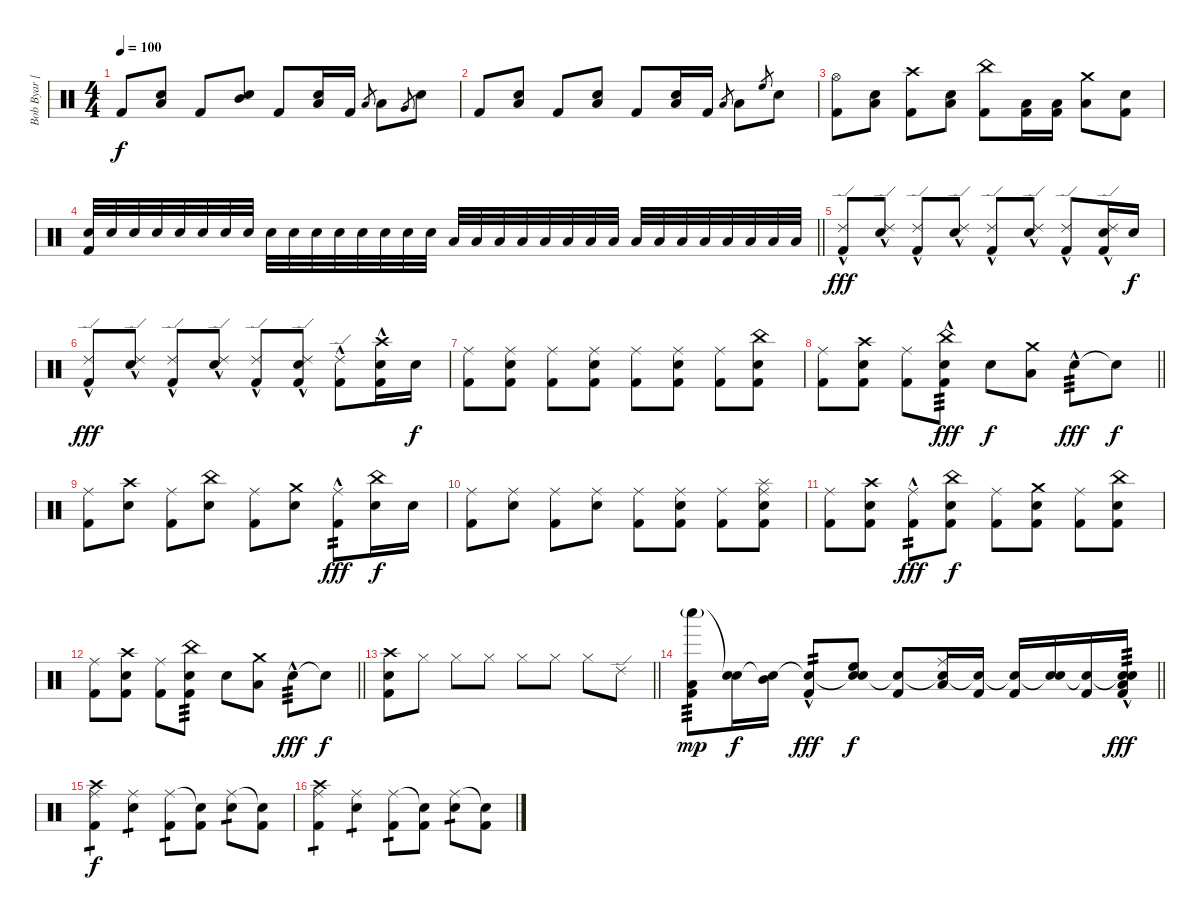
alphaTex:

\track ("Bob Byar [Drums]" "Bob Byar [") {instrument percussion}
\staff {score}
\articulation defaults
\ts (4 4)
\tempo 100
\clef neutral
\ks c "Kick (hit) 2".8{dy f}
("Low Tom (hit)" "Electric Snare (hit)").8 "Kick (hit) 2".8 ("Mid Tom (hit)" "Electric Snare (hit)").8 "Kick (hit) 2".8 ("Low Tom (hit)" "Electric Snare (hit)").16 "Kick (hit) 2".16 "Low Floor Tom (hit)".8{gr} "Low Tom (hit)".8 "Very Low Tom (hit)".8{gr} "Electric Snare (hit)".8 |
"Kick (hit) 2".8 ("Low Tom (hit)" "Electric Snare (hit)").8 "Kick (hit) 2".8 ("Low Tom (hit)" "Electric Snare (hit)").8 "Kick (hit) 2".8 ("Low Tom (hit)" "Electric Snare (hit)").16 "Kick (hit) 2".16 "Low Floor Tom (hit)".8{gr} "Low Tom (hit)".8 "High Floor Tom (hit)".8{gr} "Electric Snare (hit)".8 |
("Hi-Hat (open)" "Kick (hit) 2").8 ("Low Tom (hit)" "Electric Snare (hit)").8 ("Crash high (hit)" "Kick (hit) 2").8 ("Electric Snare (hit)" "Low Floor Tom (hit)").8 ("China (hit)" "Kick (hit) 2").8 ("Low Tom (hit)" "Kick (hit) 2").16 ("Low Floor Tom (hit)" "Kick (hit) 2").16 ("Crash medium (hit)" "Low Tom (hit)").8 ("Electric Snare (hit)" "Kick (hit) 2").8 |
\barLineRight lightlight
("Electric Snare (hit)" "Kick (hit) 2").32 "Electric Snare (hit)".32 "Electric Snare (hit)".32 "Electric Snare (hit)".32 "Electric Snare (hit)".32 "Electric Snare (hit)".32 "Electric Snare (hit)".32 "Electric Snare (hit)".32 "Electric Snare (hit)".32 "Electric Snare (hit)".32 "Electric Snare (hit)".32 "Electric Snare (hit)".32 "Electric Snare (hit)".32 "Electric Snare (hit)".32 "Electric Snare (hit)".32 "Electric Snare (hit)".32 "Low Tom (hit)".32 "Low Tom (hit)".32 "Low Tom (hit)".32 "Low Tom (hit)".32 "Low Tom (hit)".32 "Low Tom (hit)".32 "Low Tom (hit)".32 "Low Tom (hit)".32 "Low Floor Tom (hit)".32 "Low Floor Tom (hit)".32 "Low Floor Tom (hit)".32 "Low Floor Tom (hit)".32 "Low Floor Tom (hit)".32 "Low Floor Tom (hit)".32 "Low Floor Tom (hit)".32 "Low Floor Tom (hit)".32 |
("Ride (edge) 2"{hac} "Kick (hit) 2").8{dy fff} ("Ride (edge) 2"{hac} "Electric Snare (hit)").8 ("Ride (edge) 2"{hac} "Kick (hit) 2").8 ("Ride (edge) 2"{hac} "Electric Snare (hit)").8 ("Ride (edge) 2"{hac} "Kick (hit) 2").8 ("Ride (edge) 2"{hac} "Electric Snare (hit)").8 ("Ride (edge) 2"{hac} "Kick (hit) 2").8 ("Ride (edge) 2"{hac} "Electric Snare (hit)" "Kick (hit) 2").16 "Electric Snare (hit)".16{dy f} |
("Ride (edge) 2"{hac} "Kick (hit) 2").8{dy fff} ("Ride (edge) 2"{hac} "Electric Snare (hit)").8 ("Ride (edge) 2"{hac} "Kick (hit) 2").8 ("Ride (edge) 2"{hac} "Electric Snare (hit)").8 ("Ride (edge) 2"{hac} "Kick (hit) 2").8 ("Ride (edge) 2"{hac} "Electric Snare (hit)" "Kick (hit) 2").8 ("Ride (edge) 2"{hac} "Kick (hit) 2").8 ("Crash high (hit)"{hac} "Electric Snare (hit)" "Kick (hit) 2").16 "Electric Snare (hit)".16{dy f} |
("Ride (middle)" "Kick (hit) 2").8 ("Ride (middle)" "Electric Snare (hit)" "Kick (hit) 2").8 ("Ride (middle)" "Kick (hit) 2").8 ("Ride (middle)" "Electric Snare (hit)" "Kick (hit) 2").8 ("Ride (middle)" "Kick (hit) 2").8 ("Ride (middle)" "Electric Snare (hit)" "Kick (hit) 2").8 ("Ride (middle)" "Kick (hit) 2").8 ("China (hit)" "Electric Snare (hit)" "Kick (hit) 2").8 |
\barLineRight lightlight
("Ride (middle)" "Kick (hit) 2").8 ("Crash high (hit)" "Electric Snare (hit)" "Kick (hit) 2").8 ("Ride (middle)" "Kick (hit) 2").8 ("China (hit)" "Electric Snare (hit)"{hac} "Kick (hit) 2").8{tp 3 dy fff} "Electric Snare (hit)".8{dy f} ("Crash medium (hit)" "Low Tom (hit)").8 "Electric Snare (hit)"{hac}.8{tp 3 dy fff} "Electric Snare (hit)"{t}.8{dy f} |
("Ride (middle)" "Kick (hit) 2").8 ("Crash high (hit)" "Electric Snare (hit)").8 ("Ride (middle)" "Kick (hit) 2").8 ("China (hit)" "Electric Snare (hit)").8 ("Ride (middle)" "Kick (hit) 2").8 ("Crash medium (hit)" "Electric Snare (hit)").8 ("Ride (middle)" "Kick (hit) 2"{hac}).8{tp 2 dy fff} ("China (hit)" "Electric Snare (hit)").16{dy f} "Electric Snare (hit)".16 |
("Ride (middle)" "Kick (hit) 2").8 ("Ride (middle)" "Electric Snare (hit)").8 ("Ride (middle)" "Kick (hit) 2").8 ("Ride (middle)" "Electric Snare (hit)").8 ("Ride (middle)" "Kick (hit) 2").8 ("Ride (middle)" "Electric Snare (hit)" "Kick (hit) 2").8 ("Ride (middle)" "Kick (hit) 2").8 ("Ride (middle)" "Splash (hit)" "Electric Snare (hit)" "Kick (hit) 2").8 |
("Ride (middle)" "Kick (hit) 2").8 ("Crash high (hit)" "Electric Snare (hit)" "Kick (hit) 2").8 ("Ride (middle)" "Kick (hit) 2"{hac}).8{tp 2 dy fff} ("China (hit)" "Electric Snare (hit)" "Kick (hit) 2").8{dy f} ("Ride (middle)" "Kick (hit) 2").8 ("Crash medium (hit)" "Electric Snare (hit)" "Kick (hit) 2").8 ("Ride (middle)" "Kick (hit) 2").8 ("China (hit)" "Electric Snare (hit)" "Kick (hit) 2").8 |
\barLineRight lightlight
("Ride (middle)" "Kick (hit) 2").8 ("Crash high (hit)" "Electric Snare (hit)" "Kick (hit) 2").8 ("Ride (middle)" "Kick (hit) 2").8 ("China (hit)" "Electric Snare (hit)" "Kick (hit) 2").8{tp 3} "Electric Snare (hit)".8 ("Crash medium (hit)" "Low Tom (hit)").8 "Electric Snare (hit)"{hac}.8{tp 3 dy fff} "Electric Snare (hit)"{t}.8{dy f} |
\barLineRight lightlight
("Crash high (hit)" "Electric Snare (hit)" "Kick (hit) 2").8 "Hi-Hat (closed)".8 "Hi-Hat (closed)".8 "Hi-Hat (closed)".8 "Hi-Hat (closed)".8 "Hi-Hat (closed)".8 "Hi-Hat (closed)".8 "Ride (edge) 2".8 |
\barLineRight lightlight
("Whistle low (hit)"{g} "Low Floor Tom (hit)" "Kick (hit) 2").8{tp 3 dy mp} ("Snare (hit)"{t} "Electric Snare (hit)").16{dy f} ("Snare (hit)"{t} "Mid Tom (hit)").16 ("Snare (hit)"{t} "Kick (hit) 2"{hac}).8{tp 2 dy fff} ("Snare (hit)"{t} "High Floor Tom (hit)" "Electric Snare (hit)").8{dy f} ("Snare (hit)"{t} "Kick (hit) 2").8 ("Snare (hit)"{t} "Ride (middle)" "Low Floor Tom (hit)").16 ("Snare (hit)"{t} "Kick (hit) 2").16 ("Snare (hit)"{t} "Kick (hit) 2").16 ("Snare (hit)"{t} "Electric Snare (hit)").16 ("Snare (hit)"{t} "Kick (hit) 2").16 ("Snare (hit)"{t} "Electric Snare (hit)"{hac} "Low Tom (hit)" "Kick (hit) 2").16{tp 3 dy fff} |
("Ride (middle)" "Crash high (hit)" "Kick (hit) 2").4{tp 1 dy f} ("Ride (middle)" "Electric Snare (hit)").4{tp 1} ("Ride (middle)" "Kick (hit) 2").8{tp 1} ("Snare (hit)"{t} "Kick (hit) 2").8 ("Ride (middle)" "Electric Snare (hit)").8{tp 1} ("Snare (hit)"{t} "Kick (hit) 2").8 |
("Ride (middle)" "Crash high (hit)" "Kick (hit) 2").4{tp 1} ("Ride (middle)" "Electric Snare (hit)").4{tp 1} ("Ride (middle)" "Kick (hit) 2").8{tp 1} ("Snare (hit)"{t} "Kick (hit) 2").8 ("Ride (middle)" "Electric Snare (hit)").8{tp 1} ("Snare (hit)"{t} "Kick (hit) 2").8
